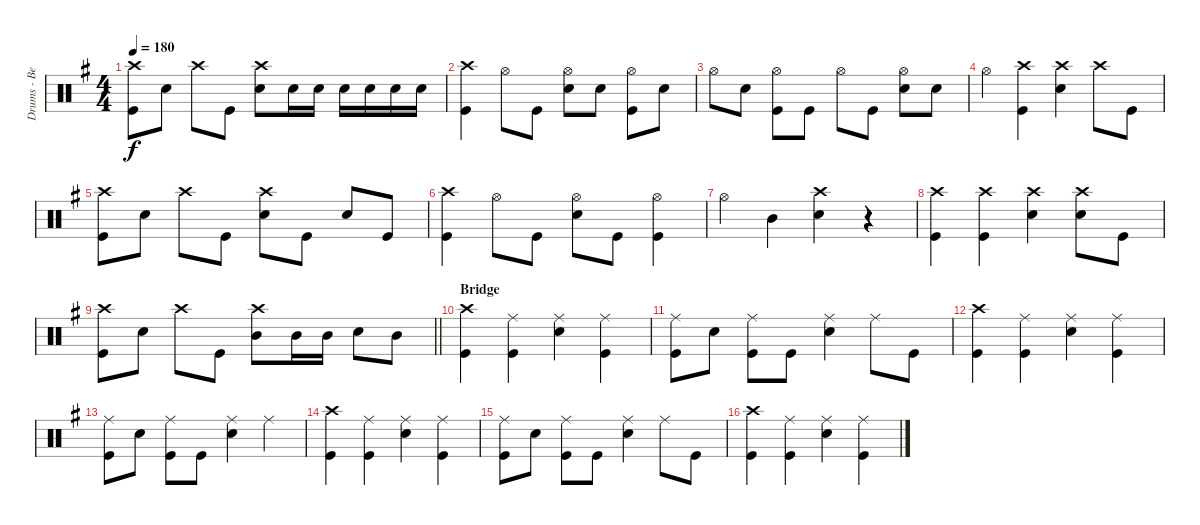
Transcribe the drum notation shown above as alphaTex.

\track ("Drums - Ben Johnston" "Drums - Be") {instrument percussion}
\staff {score}
\articulation defaults
\ts (4 4)
\tempo 180
\clef neutral
\ks eminor
("Crash high (hit)" "Kick (hit)").8{dy f} "Snare (hit) 2".8 "Crash high (hit)".8 "Kick (hit)".8 ("Crash high (hit)" "Snare (hit) 2").8 "Snare (hit) 2".16 "Snare (hit) 2".16 "Snare (hit) 2".16 "Snare (hit) 2".16 "Snare (hit) 2".16 "Snare (hit) 2".16 |
("Crash high (hit)" "Kick (hit)").4 "Hi-Hat (open)".8 "Kick (hit)".8 ("Hi-Hat (open)" "Snare (hit) 2").8 "Snare (hit) 2".8 ("Hi-Hat (open)" "Kick (hit)").8 "Snare (hit) 2".8 |
"Hi-Hat (open)".8 "Snare (hit) 2".8 ("Hi-Hat (open)" "Kick (hit)").8 "Kick (hit)".8 "Hi-Hat (open)".8 "Kick (hit)".8 ("Hi-Hat (open)" "Snare (hit) 2").8 "Snare (hit) 2".8 |
"Hi-Hat (open)".4 ("Crash high (hit)" "Kick (hit)").4 ("Crash high (hit)" "Snare (hit) 2").4 "Crash high (hit)".8 "Kick (hit)".8 |
("Crash high (hit)" "Kick (hit)").8 "Snare (hit) 2".8 "Crash high (hit)".8 "Kick (hit)".8 ("Crash high (hit)" "Snare (hit) 2").8 "Kick (hit)".8 "Snare (hit) 2".8 "Kick (hit)".8 |
("Crash high (hit)" "Kick (hit)").4 "Hi-Hat (open)".8 "Kick (hit)".8 ("Hi-Hat (open)" "Snare (hit) 2").8 "Kick (hit)".8 ("Hi-Hat (open)" "Kick (hit)").4 |
"Hi-Hat (open)".4 "Mid Tom (hit)".4 ("Crash high (hit)" "Snare (hit) 2").4 r.4 |
("Crash high (hit)" "Kick (hit)").4 ("Crash high (hit)" "Kick (hit)").4 ("Crash high (hit)" "Snare (hit) 2").4 ("Crash high (hit)" "Snare (hit) 2").8 "Kick (hit)".8 |
\barLineRight lightlight
("Crash high (hit)" "Kick (hit)").8 "Snare (hit) 2".8 "Crash high (hit)".8 "Kick (hit)".8 ("Crash high (hit)" "Mid Tom (hit)").8 "Mid Tom (hit)".16 "Mid Tom (hit)".16 "Snare (hit) 2".8 "Mid Tom (hit)".8 |
\section ("" "Bridge")
("Crash high (hit)" "Kick (hit)").4 ("Ride (middle)" "Kick (hit)").4 ("Ride (middle)" "Snare (hit) 2").4 ("Ride (middle)" "Kick (hit)").4 |
("Ride (middle)" "Kick (hit)").8 "Snare (hit) 2".8 ("Ride (middle)" "Kick (hit)").8 "Kick (hit)".8 ("Ride (middle)" "Snare (hit) 2").4 "Ride (middle)".8 "Kick (hit)".8 |
("Crash high (hit)" "Kick (hit)").4 ("Ride (middle)" "Kick (hit)").4 ("Ride (middle)" "Snare (hit) 2").4 ("Ride (middle)" "Kick (hit)").4 |
("Ride (middle)" "Kick (hit)").8 "Snare (hit) 2".8 ("Ride (middle)" "Kick (hit)").8 "Kick (hit)".8 ("Ride (middle)" "Snare (hit) 2").4 "Ride (middle)".4 |
("Crash high (hit)" "Kick (hit)").4 ("Ride (middle)" "Kick (hit)").4 ("Ride (middle)" "Snare (hit) 2").4 ("Ride (middle)" "Kick (hit)").4 |
("Ride (middle)" "Kick (hit)").8 "Snare (hit) 2".8 ("Ride (middle)" "Kick (hit)").8 "Kick (hit)".8 ("Ride (middle)" "Snare (hit) 2").4 "Ride (middle)".8 "Kick (hit)".8 |
("Crash high (hit)" "Kick (hit)").4 ("Ride (middle)" "Kick (hit)").4 ("Ride (middle)" "Snare (hit) 2").4 ("Ride (middle)" "Kick (hit)").4
